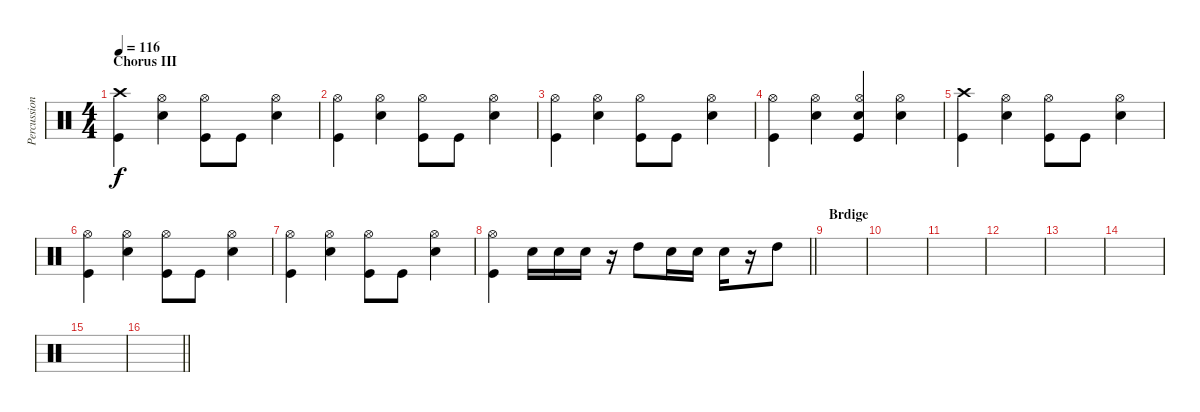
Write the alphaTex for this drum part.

\track ("Percussions" "Percussion") {instrument percussion}
\staff {score}
\articulation defaults
\ts (4 4)
\section ("" "Chorus III")
\tempo 116
\clef neutral
\ks c
("Crash high (hit)" "Kick (hit)").4{dy f} ("Hi-Hat (open)" "Snare (hit) 2").4 ("Hi-Hat (open)" "Kick (hit)").8 "Kick (hit)".8 ("Hi-Hat (open)" "Snare (hit) 2").4 |
("Hi-Hat (open)" "Kick (hit)").4 ("Hi-Hat (open)" "Snare (hit) 2").4 ("Hi-Hat (open)" "Kick (hit)").8 "Kick (hit)".8 ("Hi-Hat (open)" "Snare (hit) 2").4 |
("Hi-Hat (open)" "Kick (hit)").4 ("Hi-Hat (open)" "Snare (hit) 2").4 ("Hi-Hat (open)" "Kick (hit)").8 "Kick (hit)".8 ("Hi-Hat (open)" "Snare (hit) 2").4 |
("Hi-Hat (open)" "Kick (hit)").4 ("Hi-Hat (open)" "Snare (hit) 2").4 ("Hi-Hat (open)" "Snare (hit) 2" "Kick (hit)").4 ("Hi-Hat (open)" "Snare (hit) 2").4 |
("Crash high (hit)" "Kick (hit)").4 ("Hi-Hat (open)" "Snare (hit) 2").4 ("Hi-Hat (open)" "Kick (hit)").8 "Kick (hit)".8 ("Hi-Hat (open)" "Snare (hit) 2").4 |
("Hi-Hat (open)" "Kick (hit)").4 ("Hi-Hat (open)" "Snare (hit) 2").4 ("Hi-Hat (open)" "Kick (hit)").8 "Kick (hit)".8 ("Hi-Hat (open)" "Snare (hit) 2").4 |
("Hi-Hat (open)" "Kick (hit)").4 ("Hi-Hat (open)" "Snare (hit) 2").4 ("Hi-Hat (open)" "Kick (hit)").8 "Kick (hit)".8 ("Hi-Hat (open)" "Snare (hit) 2").4 |
\barLineRight lightlight
("Hi-Hat (open)" "Kick (hit)").4 "Snare (hit) 2".16 "Snare (hit) 2".16 "Snare (hit) 2".16 r.16 "High Tom (hit)".8 "Snare (hit) 2".16 "Snare (hit) 2".16 "Snare (hit) 2".16 r.16 "High Tom (hit)".8 |
\section ("" "Brdige")
|
|
|
|
|
|
|
\barLineRight lightlight
